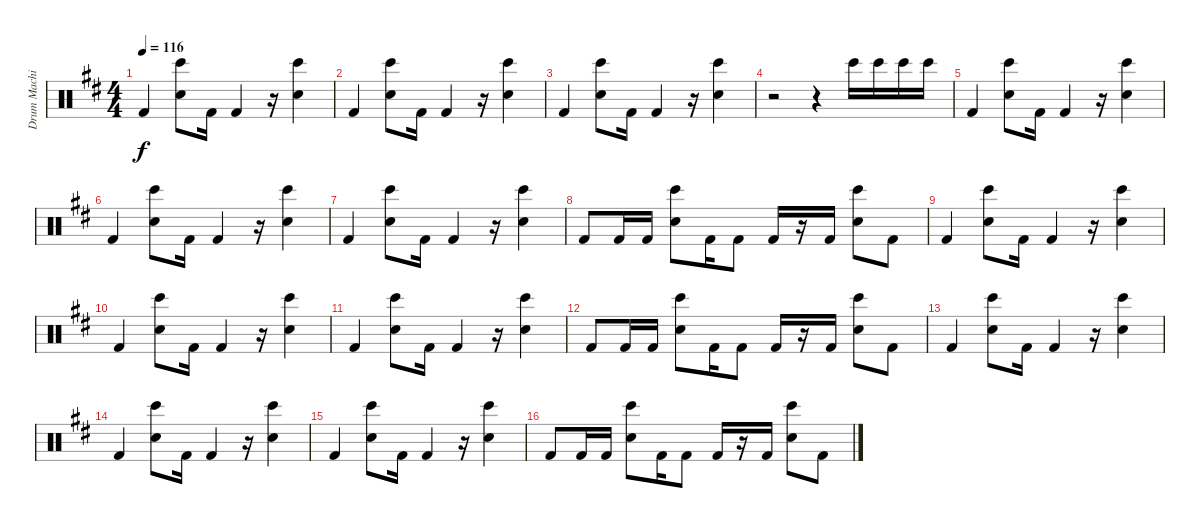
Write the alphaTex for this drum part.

\track ("Drum Machine" "Drum Machi") {instrument percussion}
\staff {score}
\articulation defaults
\ts (4 4)
\tempo 116
\clef neutral
\ks bminor "Kick (hit) 2".4{dy f}
("Bongo High (hit)" "Electric Snare (hit)").8 "Kick (hit) 2".16 "Kick (hit) 2".4 r.16 ("Bongo High (hit)" "Electric Snare (hit)").4 |
"Kick (hit) 2".4 ("Bongo High (hit)" "Electric Snare (hit)").8 "Kick (hit) 2".16 "Kick (hit) 2".4 r.16 ("Bongo High (hit)" "Electric Snare (hit)").4 |
"Kick (hit) 2".4 ("Bongo High (hit)" "Electric Snare (hit)").8 "Kick (hit) 2".16 "Kick (hit) 2".4 r.16 ("Bongo High (hit)" "Electric Snare (hit)").4 |
r.2 r.4 "Bongo High (hit)".16 "Bongo High (hit)".16 "Bongo High (hit)".16 "Bongo High (hit)".16 |
"Kick (hit) 2".4 ("Bongo High (hit)" "Electric Snare (hit)").8 "Kick (hit) 2".16 "Kick (hit) 2".4 r.16 ("Bongo High (hit)" "Electric Snare (hit)").4 |
"Kick (hit) 2".4 ("Bongo High (hit)" "Electric Snare (hit)").8 "Kick (hit) 2".16 "Kick (hit) 2".4 r.16 ("Bongo High (hit)" "Electric Snare (hit)").4 |
"Kick (hit) 2".4 ("Bongo High (hit)" "Electric Snare (hit)").8 "Kick (hit) 2".16 "Kick (hit) 2".4 r.16 ("Bongo High (hit)" "Electric Snare (hit)").4 |
"Kick (hit) 2".8 "Kick (hit) 2".16 "Kick (hit) 2".16 ("Bongo High (hit)" "Electric Snare (hit)").8 "Kick (hit) 2".16 "Kick (hit) 2".8 "Kick (hit) 2".16 r.16 "Kick (hit) 2".16 ("Bongo High (hit)" "Electric Snare (hit)").8 "Kick (hit) 2".8 |
"Kick (hit) 2".4 ("Bongo High (hit)" "Electric Snare (hit)").8 "Kick (hit) 2".16 "Kick (hit) 2".4 r.16 ("Bongo High (hit)" "Electric Snare (hit)").4 |
"Kick (hit) 2".4 ("Bongo High (hit)" "Electric Snare (hit)").8 "Kick (hit) 2".16 "Kick (hit) 2".4 r.16 ("Bongo High (hit)" "Electric Snare (hit)").4 |
"Kick (hit) 2".4 ("Bongo High (hit)" "Electric Snare (hit)").8 "Kick (hit) 2".16 "Kick (hit) 2".4 r.16 ("Bongo High (hit)" "Electric Snare (hit)").4 |
"Kick (hit) 2".8 "Kick (hit) 2".16 "Kick (hit) 2".16 ("Bongo High (hit)" "Electric Snare (hit)").8 "Kick (hit) 2".16 "Kick (hit) 2".8 "Kick (hit) 2".16 r.16 "Kick (hit) 2".16 ("Bongo High (hit)" "Electric Snare (hit)").8 "Kick (hit) 2".8 |
"Kick (hit) 2".4 ("Bongo High (hit)" "Electric Snare (hit)").8 "Kick (hit) 2".16 "Kick (hit) 2".4 r.16 ("Bongo High (hit)" "Electric Snare (hit)").4 |
"Kick (hit) 2".4 ("Bongo High (hit)" "Electric Snare (hit)").8 "Kick (hit) 2".16 "Kick (hit) 2".4 r.16 ("Bongo High (hit)" "Electric Snare (hit)").4 |
"Kick (hit) 2".4 ("Bongo High (hit)" "Electric Snare (hit)").8 "Kick (hit) 2".16 "Kick (hit) 2".4 r.16 ("Bongo High (hit)" "Electric Snare (hit)").4 |
"Kick (hit) 2".8 "Kick (hit) 2".16 "Kick (hit) 2".16 ("Bongo High (hit)" "Electric Snare (hit)").8 "Kick (hit) 2".16 "Kick (hit) 2".8 "Kick (hit) 2".16 r.16 "Kick (hit) 2".16 ("Bongo High (hit)" "Electric Snare (hit)").8 "Kick (hit) 2".8
